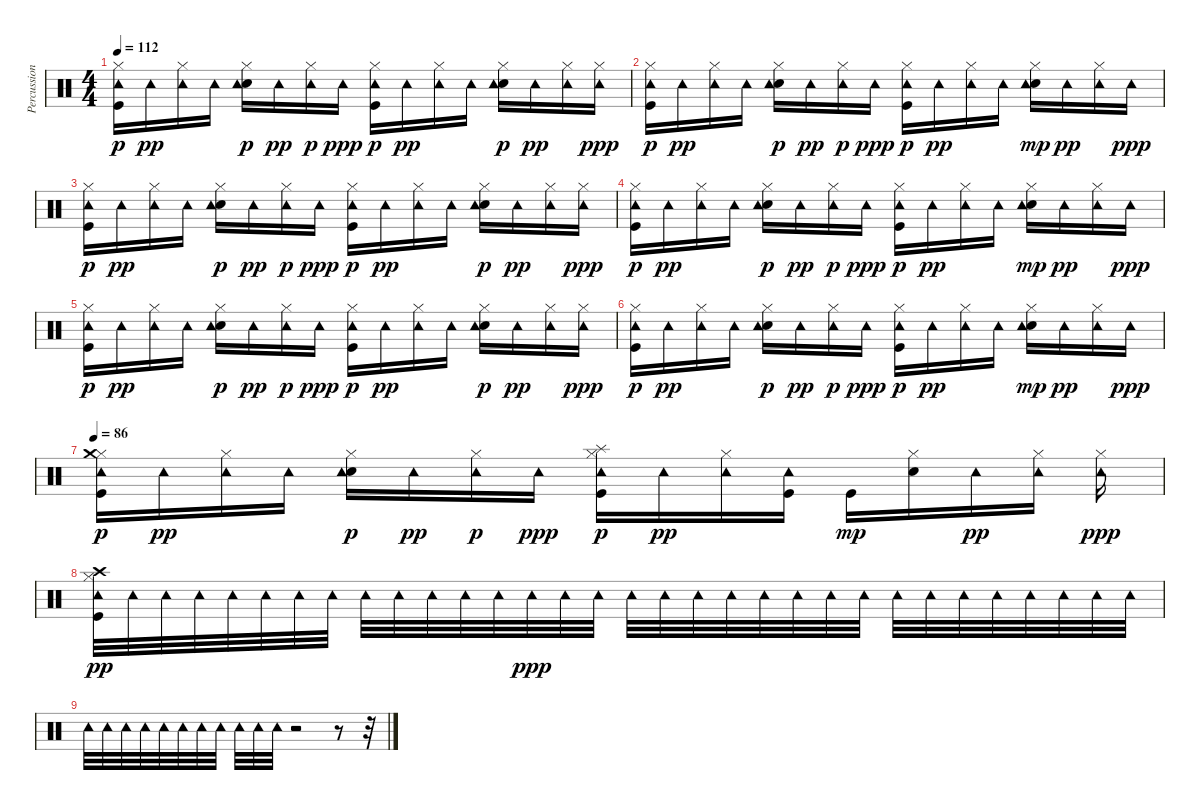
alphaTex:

\track ("Percussioni" "Percussion") {instrument percussion}
\staff {score}
\articulation defaults
\ts (4 4)
\tempo 112
\clef neutral
\ks c
("Kick (hit)" "Hi-Hat (closed)" "Tambourine (hit)").16{dy p} "Tambourine (hit)".16{dy pp} ("Hi-Hat (closed)" "Tambourine (hit)").16 "Tambourine (hit)".16 ("Electric Snare (hit)" "Hi-Hat (closed)" "Tambourine (hit)").16{dy p} "Tambourine (hit)".16{dy pp} ("Hi-Hat (closed)" "Tambourine (hit)").16{dy p} "Tambourine (hit)".16{dy ppp} ("Kick (hit)" "Hi-Hat (closed)" "Tambourine (hit)").16{dy p} "Tambourine (hit)".16{dy pp} ("Hi-Hat (closed)" "Tambourine (hit)").16 "Tambourine (hit)".16 ("Electric Snare (hit)" "Hi-Hat (closed)" "Tambourine (hit)").16{dy p} "Tambourine (hit)".16{dy pp} ("Hi-Hat (closed)" "Tambourine (hit)").16 ("Hi-Hat (closed)" "Tambourine (hit)").16{dy ppp} |
("Kick (hit)" "Hi-Hat (closed)" "Tambourine (hit)").16{dy p} "Tambourine (hit)".16{dy pp} ("Hi-Hat (closed)" "Tambourine (hit)").16 "Tambourine (hit)".16 ("Electric Snare (hit)" "Hi-Hat (closed)" "Tambourine (hit)").16{dy p} "Tambourine (hit)".16{dy pp} ("Hi-Hat (closed)" "Tambourine (hit)").16{dy p} "Tambourine (hit)".16{dy ppp} ("Kick (hit)" "Hi-Hat (closed)" "Tambourine (hit)").16{dy p} "Tambourine (hit)".16{dy pp} ("Hi-Hat (closed)" "Tambourine (hit)").16 "Tambourine (hit)".16 ("Electric Snare (hit)" "Hi-Hat (closed)" "Tambourine (hit)").16{dy mp} "Tambourine (hit)".16{dy pp} ("Hi-Hat (closed)" "Tambourine (hit)").16 "Tambourine (hit)".16{dy ppp} |
("Kick (hit)" "Hi-Hat (closed)" "Tambourine (hit)").16{dy p} "Tambourine (hit)".16{dy pp} ("Hi-Hat (closed)" "Tambourine (hit)").16 "Tambourine (hit)".16 ("Electric Snare (hit)" "Hi-Hat (closed)" "Tambourine (hit)").16{dy p} "Tambourine (hit)".16{dy pp} ("Hi-Hat (closed)" "Tambourine (hit)").16{dy p} "Tambourine (hit)".16{dy ppp} ("Kick (hit)" "Hi-Hat (closed)" "Tambourine (hit)").16{dy p} "Tambourine (hit)".16{dy pp} ("Hi-Hat (closed)" "Tambourine (hit)").16 "Tambourine (hit)".16 ("Electric Snare (hit)" "Hi-Hat (closed)" "Tambourine (hit)").16{dy p} "Tambourine (hit)".16{dy pp} ("Hi-Hat (closed)" "Tambourine (hit)").16 ("Hi-Hat (closed)" "Tambourine (hit)").16{dy ppp} |
("Kick (hit)" "Hi-Hat (closed)" "Tambourine (hit)").16{dy p} "Tambourine (hit)".16{dy pp} ("Hi-Hat (closed)" "Tambourine (hit)").16 "Tambourine (hit)".16 ("Electric Snare (hit)" "Hi-Hat (closed)" "Tambourine (hit)").16{dy p} "Tambourine (hit)".16{dy pp} ("Hi-Hat (closed)" "Tambourine (hit)").16{dy p} "Tambourine (hit)".16{dy ppp} ("Kick (hit)" "Hi-Hat (closed)" "Tambourine (hit)").16{dy p} "Tambourine (hit)".16{dy pp} ("Hi-Hat (closed)" "Tambourine (hit)").16 "Tambourine (hit)".16 ("Electric Snare (hit)" "Hi-Hat (closed)" "Tambourine (hit)").16{dy mp} "Tambourine (hit)".16{dy pp} ("Hi-Hat (closed)" "Tambourine (hit)").16 "Tambourine (hit)".16{dy ppp} |
("Kick (hit)" "Hi-Hat (closed)" "Tambourine (hit)").16{dy p} "Tambourine (hit)".16{dy pp} ("Hi-Hat (closed)" "Tambourine (hit)").16 "Tambourine (hit)".16 ("Electric Snare (hit)" "Hi-Hat (closed)" "Tambourine (hit)").16{dy p} "Tambourine (hit)".16{dy pp} ("Hi-Hat (closed)" "Tambourine (hit)").16{dy p} "Tambourine (hit)".16{dy ppp} ("Kick (hit)" "Hi-Hat (closed)" "Tambourine (hit)").16{dy p} "Tambourine (hit)".16{dy pp} ("Hi-Hat (closed)" "Tambourine (hit)").16 "Tambourine (hit)".16 ("Electric Snare (hit)" "Hi-Hat (closed)" "Tambourine (hit)").16{dy p} "Tambourine (hit)".16{dy pp} ("Hi-Hat (closed)" "Tambourine (hit)").16 ("Hi-Hat (closed)" "Tambourine (hit)").16{dy ppp} |
("Kick (hit)" "Hi-Hat (closed)" "Tambourine (hit)").16{dy p} "Tambourine (hit)".16{dy pp} ("Hi-Hat (closed)" "Tambourine (hit)").16 "Tambourine (hit)".16 ("Electric Snare (hit)" "Hi-Hat (closed)" "Tambourine (hit)").16{dy p} "Tambourine (hit)".16{dy pp} ("Hi-Hat (closed)" "Tambourine (hit)").16{dy p} "Tambourine (hit)".16{dy ppp} ("Kick (hit)" "Hi-Hat (closed)" "Tambourine (hit)").16{dy p} "Tambourine (hit)".16{dy pp} ("Hi-Hat (closed)" "Tambourine (hit)").16 "Tambourine (hit)".16 ("Electric Snare (hit)" "Hi-Hat (closed)" "Tambourine (hit)").16{dy mp} "Tambourine (hit)".16{dy pp} ("Hi-Hat (closed)" "Tambourine (hit)").16 "Tambourine (hit)".16{dy ppp} |
\tempo 86
("Kick (hit)" "Hi-Hat (closed)" "Tambourine (hit)" "Crash medium (hit)").16{dy p} "Tambourine (hit)".16{dy pp} ("Hi-Hat (closed)" "Tambourine (hit)").16 "Tambourine (hit)".16 ("Electric Snare (hit)" "Hi-Hat (closed)" "Tambourine (hit)").16{dy p} "Tambourine (hit)".16{dy pp} ("Hi-Hat (closed)" "Tambourine (hit)").16{dy p} "Tambourine (hit)".16{dy ppp} ("Kick (hit)" "Hi-Hat (closed)" "Tambourine (hit)" "Splash (hit)").16{dy p} "Tambourine (hit)".16{dy pp} ("Hi-Hat (closed)" "Tambourine (hit)").16 ("Kick (hit)" "Tambourine (hit)").16 "Kick (hit)".16{dy mp} ("Electric Snare (hit)" "Hi-Hat (closed)").16 "Tambourine (hit)".16{dy pp} ("Hi-Hat (closed)" "Tambourine (hit)").16 ("Hi-Hat (closed)" "Tambourine (hit)").16{dy ppp} |
("Kick (hit)" "Hi-Hat (closed)" "Crash high (hit)" "Tambourine (hit)").32{dy pp} "Tambourine (hit)".32 "Tambourine (hit)".32 "Tambourine (hit)".32 "Tambourine (hit)".32 "Tambourine (hit)".32 "Tambourine (hit)".32 "Tambourine (hit)".32 "Tambourine (hit)".32 "Tambourine (hit)".32 "Tambourine (hit)".32 "Tambourine (hit)".32 "Tambourine (hit)".32 "Tambourine (hit)".32{dy ppp} "Tambourine (hit)".32 "Tambourine (hit)".32 "Tambourine (hit)".32 "Tambourine (hit)".32 "Tambourine (hit)".32 "Tambourine (hit)".32 "Tambourine (hit)".32 "Tambourine (hit)".32 "Tambourine (hit)".32 "Tambourine (hit)".32 "Tambourine (hit)".32 "Tambourine (hit)".32 "Tambourine (hit)".32 "Tambourine (hit)".32 "Tambourine (hit)".32 "Tambourine (hit)".32 "Tambourine (hit)".32 "Tambourine (hit)".32 |
"Tambourine (hit)".32 "Tambourine (hit)".32 "Tambourine (hit)".32 "Tambourine (hit)".32 "Tambourine (hit)".32 "Tambourine (hit)".32 "Tambourine (hit)".32 "Tambourine (hit)".32 "Tambourine (hit)".32 "Tambourine (hit)".32 "Tambourine (hit)".32 r.2 r.8 r.32
